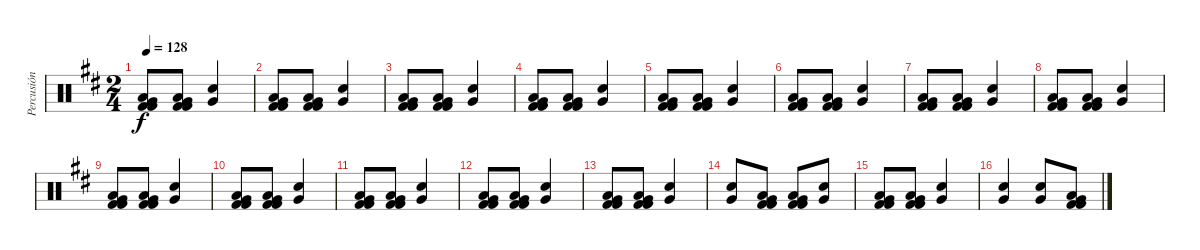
\track ("Percusión" "Percusión") {instrument percussion}
\staff {score}
\articulation defaults
\ts (2 4)
\tempo 128
\clef neutral
\ks d
("Kick (hit) 2" "Low Floor Tom (hit)" "Kick (hit) 2" "Very Low Tom (hit)").8{dy f} ("Kick (hit) 2" "Low Floor Tom (hit)" "Kick (hit) 2" "Very Low Tom (hit)").8 ("Electric Snare (hit)" "Very Low Tom (hit)").4 |
("Kick (hit) 2" "Low Floor Tom (hit)" "Kick (hit) 2" "Very Low Tom (hit)").8 ("Kick (hit) 2" "Low Floor Tom (hit)" "Kick (hit) 2" "Very Low Tom (hit)").8 ("Electric Snare (hit)" "Very Low Tom (hit)").4 |
("Kick (hit) 2" "Low Floor Tom (hit)" "Kick (hit) 2" "Very Low Tom (hit)").8 ("Kick (hit) 2" "Low Floor Tom (hit)" "Kick (hit) 2" "Very Low Tom (hit)").8 ("Electric Snare (hit)" "Very Low Tom (hit)").4 |
("Kick (hit) 2" "Low Floor Tom (hit)" "Kick (hit) 2" "Very Low Tom (hit)").8 ("Kick (hit) 2" "Low Floor Tom (hit)" "Kick (hit) 2" "Very Low Tom (hit)").8 ("Electric Snare (hit)" "Very Low Tom (hit)").4 |
("Kick (hit) 2" "Low Floor Tom (hit)" "Kick (hit) 2" "Very Low Tom (hit)").8 ("Kick (hit) 2" "Low Floor Tom (hit)" "Kick (hit) 2" "Very Low Tom (hit)").8 ("Electric Snare (hit)" "Very Low Tom (hit)").4 |
("Kick (hit) 2" "Low Floor Tom (hit)" "Kick (hit) 2" "Very Low Tom (hit)").8 ("Kick (hit) 2" "Low Floor Tom (hit)" "Kick (hit) 2" "Very Low Tom (hit)").8 ("Electric Snare (hit)" "Very Low Tom (hit)").4 |
("Kick (hit) 2" "Low Floor Tom (hit)" "Kick (hit) 2" "Very Low Tom (hit)").8 ("Kick (hit) 2" "Low Floor Tom (hit)" "Kick (hit) 2" "Very Low Tom (hit)").8 ("Electric Snare (hit)" "Very Low Tom (hit)").4 |
("Kick (hit) 2" "Low Floor Tom (hit)" "Kick (hit) 2" "Very Low Tom (hit)").8 ("Kick (hit) 2" "Low Floor Tom (hit)" "Kick (hit) 2" "Very Low Tom (hit)").8 ("Electric Snare (hit)" "Very Low Tom (hit)").4 |
("Kick (hit) 2" "Low Floor Tom (hit)" "Kick (hit) 2" "Very Low Tom (hit)").8 ("Kick (hit) 2" "Low Floor Tom (hit)" "Kick (hit) 2" "Very Low Tom (hit)").8 ("Electric Snare (hit)" "Very Low Tom (hit)").4 |
("Kick (hit) 2" "Low Floor Tom (hit)" "Kick (hit) 2" "Very Low Tom (hit)").8 ("Kick (hit) 2" "Low Floor Tom (hit)" "Kick (hit) 2" "Very Low Tom (hit)").8 ("Electric Snare (hit)" "Very Low Tom (hit)").4 |
("Kick (hit) 2" "Low Floor Tom (hit)" "Kick (hit) 2" "Very Low Tom (hit)").8 ("Kick (hit) 2" "Low Floor Tom (hit)" "Kick (hit) 2" "Very Low Tom (hit)").8 ("Electric Snare (hit)" "Very Low Tom (hit)").4 |
("Kick (hit) 2" "Low Floor Tom (hit)" "Kick (hit) 2" "Very Low Tom (hit)").8 ("Kick (hit) 2" "Low Floor Tom (hit)" "Kick (hit) 2" "Very Low Tom (hit)").8 ("Electric Snare (hit)" "Very Low Tom (hit)").4 |
("Kick (hit) 2" "Low Floor Tom (hit)" "Kick (hit) 2" "Very Low Tom (hit)").8 ("Kick (hit) 2" "Low Floor Tom (hit)" "Kick (hit) 2" "Very Low Tom (hit)").8 ("Electric Snare (hit)" "Very Low Tom (hit)").4 |
("Electric Snare (hit)" "Very Low Tom (hit)").8 ("Kick (hit) 2" "Low Floor Tom (hit)" "Kick (hit) 2" "Very Low Tom (hit)").8 ("Kick (hit) 2" "Low Floor Tom (hit)" "Kick (hit) 2" "Very Low Tom (hit)").8 ("Electric Snare (hit)" "Very Low Tom (hit)").8 |
("Kick (hit) 2" "Low Floor Tom (hit)" "Kick (hit) 2" "Very Low Tom (hit)").8 ("Kick (hit) 2" "Low Floor Tom (hit)" "Kick (hit) 2" "Very Low Tom (hit)").8 ("Electric Snare (hit)" "Very Low Tom (hit)").4 |
("Electric Snare (hit)" "Very Low Tom (hit)").4 ("Electric Snare (hit)" "Very Low Tom (hit)").8 ("Kick (hit) 2" "Low Floor Tom (hit)" "Kick (hit) 2" "Very Low Tom (hit)").8
